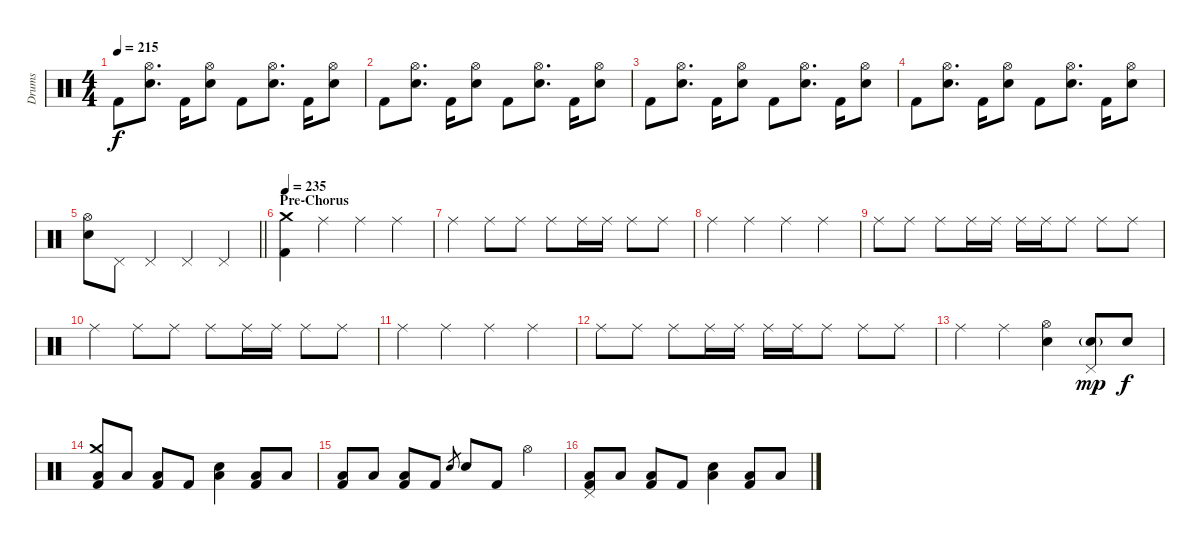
\track ("Drums" "Drums") {instrument percussion}
\staff {score}
\articulation defaults
\ts (4 4)
\tempo 215
\clef neutral
\ks c "Kick (hit) 2".8{dy f}
("Hi-Hat (open)" "Electric Snare (hit)").8{d} "Kick (hit) 2".16 ("Hi-Hat (open)" "Electric Snare (hit)").8 "Kick (hit) 2".8 ("Hi-Hat (open)" "Electric Snare (hit)").8{d} "Kick (hit) 2".16 ("Hi-Hat (open)" "Electric Snare (hit)").8 |
"Kick (hit) 2".8 ("Hi-Hat (open)" "Electric Snare (hit)").8{d} "Kick (hit) 2".16 ("Hi-Hat (open)" "Electric Snare (hit)").8 "Kick (hit) 2".8 ("Hi-Hat (open)" "Electric Snare (hit)").8{d} "Kick (hit) 2".16 ("Hi-Hat (open)" "Electric Snare (hit)").8 |
"Kick (hit) 2".8 ("Hi-Hat (open)" "Electric Snare (hit)").8{d} "Kick (hit) 2".16 ("Hi-Hat (open)" "Electric Snare (hit)").8 "Kick (hit) 2".8 ("Hi-Hat (open)" "Electric Snare (hit)").8{d} "Kick (hit) 2".16 ("Hi-Hat (open)" "Electric Snare (hit)").8 |
"Kick (hit) 2".8 ("Hi-Hat (open)" "Electric Snare (hit)").8{d} "Kick (hit) 2".16 ("Hi-Hat (open)" "Electric Snare (hit)").8 "Kick (hit) 2".8 ("Hi-Hat (open)" "Electric Snare (hit)").8{d} "Kick (hit) 2".16 ("Hi-Hat (open)" "Electric Snare (hit)").8 |
\barLineRight lightlight
("Hi-Hat (open)" "Electric Snare (hit)").8 "Pedal Hi-Hat (hit)".8 "Pedal Hi-Hat (hit)".4 "Pedal Hi-Hat (hit)".4 "Pedal Hi-Hat (hit)".4 |
\section ("" "Pre-Chorus")
\tempo 235
("Crash medium (hit)" "Kick (hit) 2").4 "Ride (middle)".4 "Ride (middle)".4 "Ride (middle)".4 |
"Ride (middle)".4 "Ride (middle)".8 "Ride (middle)".8 "Ride (middle)".8 "Ride (middle)".16 "Ride (middle)".16 "Ride (middle)".8 "Ride (middle)".8 |
"Ride (middle)".4 "Ride (middle)".4 "Ride (middle)".4 "Ride (middle)".4 |
"Ride (middle)".8 "Ride (middle)".8 "Ride (middle)".8 "Ride (middle)".16 "Ride (middle)".16 "Ride (middle)".16 "Ride (middle)".16 "Ride (middle)".8 "Ride (middle)".8 "Ride (middle)".8 |
"Ride (middle)".4 "Ride (middle)".8 "Ride (middle)".8 "Ride (middle)".8 "Ride (middle)".16 "Ride (middle)".16 "Ride (middle)".8 "Ride (middle)".8 |
"Ride (middle)".4 "Ride (middle)".4 "Ride (middle)".4 "Ride (middle)".4 |
"Ride (middle)".8 "Ride (middle)".8 "Ride (middle)".8 "Ride (middle)".16 "Ride (middle)".16 "Ride (middle)".16 "Ride (middle)".16 "Ride (middle)".8 "Ride (middle)".8 "Ride (middle)".8 |
"Ride (middle)".4 "Ride (middle)".4 ("Hi-Hat (open)" "Electric Snare (hit)").4 ("Pedal Hi-Hat (hit)" "Electric Snare (hit)"{g}).8{dy mp} "Electric Snare (hit)".8{dy f} |
("Crash medium (hit)" "Low Floor Tom (hit)" "Kick (hit) 2").8 "Low Tom (hit)".8 ("Low Floor Tom (hit)" "Kick (hit) 2").8 "Kick (hit) 2".8 ("Electric Snare (hit)" "Low Floor Tom (hit)").4 ("Low Floor Tom (hit)" "Kick (hit) 2").8 "Low Tom (hit)".8 |
("Low Floor Tom (hit)" "Kick (hit) 2").8 "Low Tom (hit)".8 ("Low Floor Tom (hit)" "Kick (hit) 2").8 "Kick (hit) 2".8 "Electric Snare (hit)".8{gr} "Electric Snare (hit)".8 "Kick (hit) 2".8 "Hi-Hat (open)".4 |
("Pedal Hi-Hat (hit)" "Low Floor Tom (hit)" "Kick (hit) 2").8 "Low Tom (hit)".8 ("Low Floor Tom (hit)" "Kick (hit) 2").8 "Kick (hit) 2".8 ("Electric Snare (hit)" "Low Floor Tom (hit)").4 ("Low Floor Tom (hit)" "Kick (hit) 2").8 "Low Tom (hit)".8
